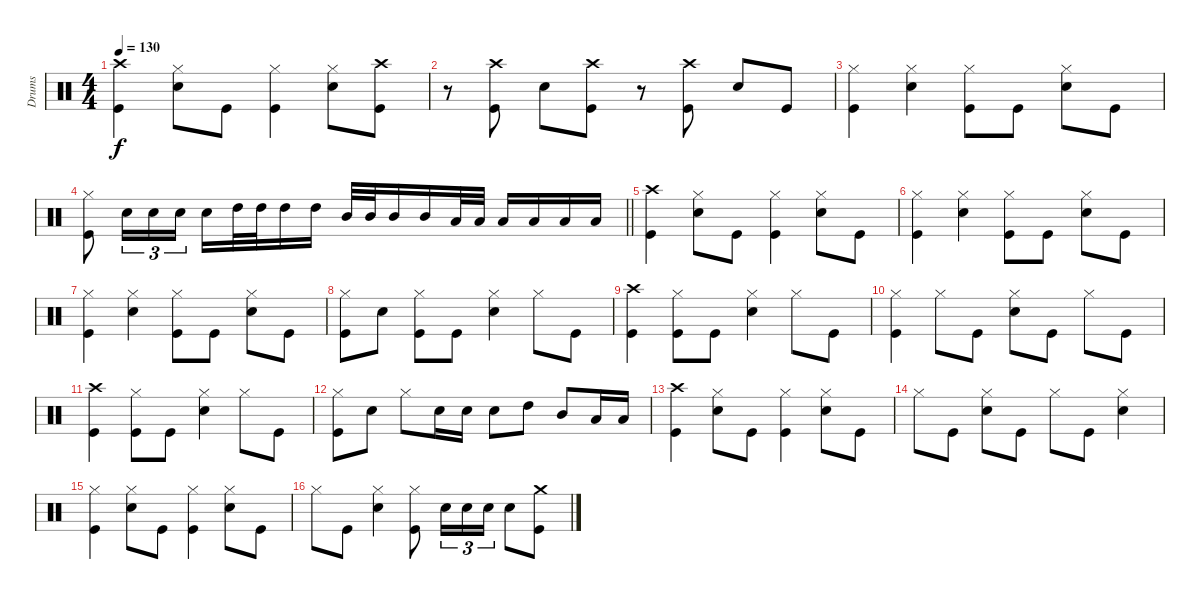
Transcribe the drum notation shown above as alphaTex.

\track ("Drums" "Drums") {instrument percussion}
\staff {score}
\articulation defaults
\ts (4 4)
\tempo 130
\clef neutral
\ks c
("Crash high (hit)" "Kick (hit)").4{dy f} ("Hi-Hat (closed)" "Snare (hit) 2").8 "Kick (hit)".8 ("Hi-Hat (closed)" "Kick (hit)").4 ("Hi-Hat (closed)" "Snare (hit) 2").8 ("Crash high (hit)" "Kick (hit)").8 |
r.8 ("Crash high (hit)" "Kick (hit)").8 "Snare (hit) 2".8 ("Crash high (hit)" "Kick (hit)").8 r.8 ("Crash high (hit)" "Kick (hit)").8 "Snare (hit) 2".8 "Kick (hit)".8 |
("Hi-Hat (closed)" "Kick (hit)").4 ("Hi-Hat (closed)" "Snare (hit) 2").4 ("Hi-Hat (closed)" "Kick (hit)").8 "Kick (hit)".8 ("Hi-Hat (closed)" "Snare (hit) 2").8 "Kick (hit)".8 |
\barLineRight lightlight
("Hi-Hat (closed)" "Kick (hit)").8 "Snare (hit) 2".16{tu (3 2)} "Snare (hit) 2".16{tu (3 2)} "Snare (hit) 2".16{tu (3 2)} "Snare (hit) 2".16 "High Tom (hit)".32 "High Tom (hit)".32 "High Tom (hit)".16 "High Tom (hit)".16 "Mid Tom (hit)".32 "Mid Tom (hit)".32 "Mid Tom (hit)".16 "Mid Tom (hit)".16 "Low Tom (hit)".32 "Low Tom (hit)".32 "Low Tom (hit)".16 "Low Tom (hit)".16 "Low Tom (hit)".16 "Low Tom (hit)".16 |
("Crash high (hit)" "Kick (hit)").4 ("Hi-Hat (closed)" "Snare (hit) 2").8 "Kick (hit)".8 ("Hi-Hat (closed)" "Kick (hit)").4 ("Hi-Hat (closed)" "Snare (hit) 2").8 "Kick (hit)".8 |
("Hi-Hat (closed)" "Kick (hit)").4 ("Hi-Hat (closed)" "Snare (hit) 2").4 ("Hi-Hat (closed)" "Kick (hit)").8 "Kick (hit)".8 ("Hi-Hat (closed)" "Snare (hit) 2").8 "Kick (hit)".8 |
("Hi-Hat (closed)" "Kick (hit)").4 ("Hi-Hat (closed)" "Snare (hit) 2").4 ("Hi-Hat (closed)" "Kick (hit)").8 "Kick (hit)".8 ("Hi-Hat (closed)" "Snare (hit) 2").8 "Kick (hit)".8 |
("Hi-Hat (closed)" "Kick (hit)").8 "Snare (hit) 2".8 ("Hi-Hat (closed)" "Kick (hit)").8 "Kick (hit)".8 ("Hi-Hat (closed)" "Snare (hit) 2").4 "Hi-Hat (closed)".8 "Kick (hit)".8 |
("Crash high (hit)" "Kick (hit)").4 ("Hi-Hat (closed)" "Kick (hit)").8 "Kick (hit)".8 ("Hi-Hat (closed)" "Snare (hit) 2").4 "Hi-Hat (closed)".8 "Kick (hit)".8 |
("Hi-Hat (closed)" "Kick (hit)").4 "Hi-Hat (closed)".8 "Kick (hit)".8 ("Hi-Hat (closed)" "Snare (hit) 2").8 "Kick (hit)".8 "Hi-Hat (closed)".8 "Kick (hit)".8 |
("Crash high (hit)" "Kick (hit)").4 ("Hi-Hat (closed)" "Kick (hit)").8 "Kick (hit)".8 ("Hi-Hat (closed)" "Snare (hit) 2").4 "Hi-Hat (closed)".8 "Kick (hit)".8 |
("Hi-Hat (closed)" "Kick (hit)").8 "Snare (hit) 2".8 "Hi-Hat (closed)".8 "Snare (hit) 2".16 "Snare (hit) 2".16 "Snare (hit) 2".8 "High Tom (hit)".8 "Mid Tom (hit)".8 "Low Tom (hit)".16 "Low Tom (hit)".16 |
("Crash high (hit)" "Kick (hit)").4 ("Hi-Hat (closed)" "Snare (hit) 2").8 "Kick (hit)".8 ("Hi-Hat (closed)" "Kick (hit)").4 ("Hi-Hat (closed)" "Snare (hit) 2").8 "Kick (hit)".8 |
"Hi-Hat (closed)".8 "Kick (hit)".8 ("Hi-Hat (closed)" "Snare (hit) 2").8 "Kick (hit)".8 "Hi-Hat (closed)".8 "Kick (hit)".8 ("Hi-Hat (closed)" "Snare (hit) 2").4 |
("Hi-Hat (closed)" "Kick (hit)").4 ("Hi-Hat (closed)" "Snare (hit) 2").8 "Kick (hit)".8 ("Hi-Hat (closed)" "Kick (hit)").4 ("Hi-Hat (closed)" "Snare (hit) 2").8 "Kick (hit)".8 |
"Hi-Hat (closed)".8 "Kick (hit)".8 ("Hi-Hat (closed)" "Snare (hit) 2").4 ("Hi-Hat (closed)" "Kick (hit)").8 "Snare (hit) 2".16{tu (3 2)} "Snare (hit) 2".16{tu (3 2)} "Snare (hit) 2".16{tu (3 2)} "Snare (hit) 2".8 ("Crash medium (hit)" "Kick (hit)").8
